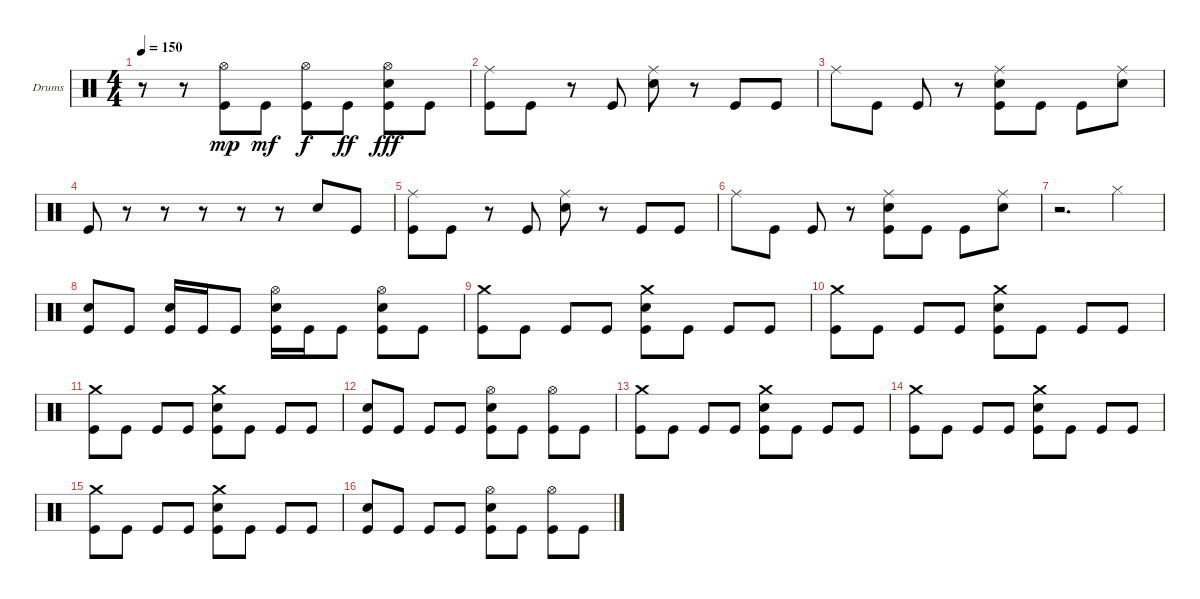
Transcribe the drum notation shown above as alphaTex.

\bracketExtendMode groupsimilarinstruments
\firstSystemTrackNameOrientation horizontal
\otherSystemsTrackNameOrientation horizontal
\track ("Corey" "Drums") {instrument percussion}
\staff {score}
\articulation defaults
\ts (4 4)
\tempo 150
\clef neutral
\ks c
r.8{dy fff} r.8 ("Hi-Hat (open)" "Kick (hit)").8{dy mp} "Kick (hit)".8{dy mf} ("Hi-Hat (open)" "Kick (hit)").8{dy f} "Kick (hit)".8{dy ff} ("Hi-Hat (open)" "Snare (hit) 2" "Kick (hit)").8{dy fff} "Kick (hit)".8 |
("Kick (hit)" "Ride (middle)").8 "Kick (hit)".8 r.8 "Kick (hit)".8 ("Snare (hit) 2" "Ride (middle)").8 r.8 "Kick (hit)".8 "Kick (hit)".8 |
"Ride (middle)".8 "Kick (hit)".8 "Kick (hit)".8 r.8 ("Kick (hit)" "Ride (middle)" "Snare (hit) 2").8 "Kick (hit)".8 "Kick (hit)".8 ("Snare (hit) 2" "Ride (middle)").8 |
"Kick (hit)".8 r.8 r.8 r.8 r.8 r.8 "Snare (hit) 2".8 "Kick (hit)".8 |
("Kick (hit)" "Ride (middle)").8 "Kick (hit)".8 r.8 "Kick (hit)".8 ("Snare (hit) 2" "Ride (middle)").8 r.8 "Kick (hit)".8 "Kick (hit)".8 |
"Ride (middle)".8 "Kick (hit)".8 "Kick (hit)".8 r.8 ("Kick (hit)" "Ride (middle)" "Snare (hit) 2").8 "Kick (hit)".8 "Kick (hit)".8 ("Snare (hit) 2" "Ride (middle)").8 |
r.2{d} "Hi-Hat (closed)".4 |
("Kick (hit)" "Snare (hit) 2").8 "Kick (hit)".8 ("Kick (hit)" "Snare (hit) 2").16 "Kick (hit)".16 "Kick (hit)".8 ("Kick (hit)" "Snare (hit) 2" "Hi-Hat (open)").16 "Kick (hit)".16 "Kick (hit)".8 ("Kick (hit)" "Snare (hit) 2" "Hi-Hat (open)").8 "Kick (hit)".8 |
("Kick (hit)" "Crash medium (hit)").8 "Kick (hit)".8 "Kick (hit)".8 "Kick (hit)".8 ("Kick (hit)" "Snare (hit) 2" "Crash medium (hit)").8 "Kick (hit)".8 "Kick (hit)".8 "Kick (hit)".8 |
("Kick (hit)" "Crash medium (hit)").8 "Kick (hit)".8 "Kick (hit)".8 "Kick (hit)".8 ("Kick (hit)" "Snare (hit) 2" "Crash medium (hit)").8 "Kick (hit)".8 "Kick (hit)".8 "Kick (hit)".8 |
("Kick (hit)" "Crash medium (hit)").8 "Kick (hit)".8 "Kick (hit)".8 "Kick (hit)".8 ("Kick (hit)" "Snare (hit) 2" "Crash medium (hit)").8 "Kick (hit)".8 "Kick (hit)".8 "Kick (hit)".8 |
("Kick (hit)" "Snare (hit) 2").8 "Kick (hit)".8 "Kick (hit)".8 "Kick (hit)".8 ("Kick (hit)" "Snare (hit) 2" "Hi-Hat (open)").8 "Kick (hit)".8 ("Kick (hit)" "Hi-Hat (open)").8 "Kick (hit)".8 |
("Kick (hit)" "Crash medium (hit)").8 "Kick (hit)".8 "Kick (hit)".8 "Kick (hit)".8 ("Kick (hit)" "Snare (hit) 2" "Crash medium (hit)").8 "Kick (hit)".8 "Kick (hit)".8 "Kick (hit)".8 |
("Kick (hit)" "Crash medium (hit)").8 "Kick (hit)".8 "Kick (hit)".8 "Kick (hit)".8 ("Kick (hit)" "Snare (hit) 2" "Crash medium (hit)").8 "Kick (hit)".8 "Kick (hit)".8 "Kick (hit)".8 |
("Kick (hit)" "Crash medium (hit)").8 "Kick (hit)".8 "Kick (hit)".8 "Kick (hit)".8 ("Kick (hit)" "Snare (hit) 2" "Crash medium (hit)").8 "Kick (hit)".8 "Kick (hit)".8 "Kick (hit)".8 |
("Kick (hit)" "Snare (hit) 2").8 "Kick (hit)".8 "Kick (hit)".8 "Kick (hit)".8 ("Kick (hit)" "Snare (hit) 2" "Hi-Hat (open)").8 "Kick (hit)".8 ("Kick (hit)" "Hi-Hat (open)").8 "Kick (hit)".8
